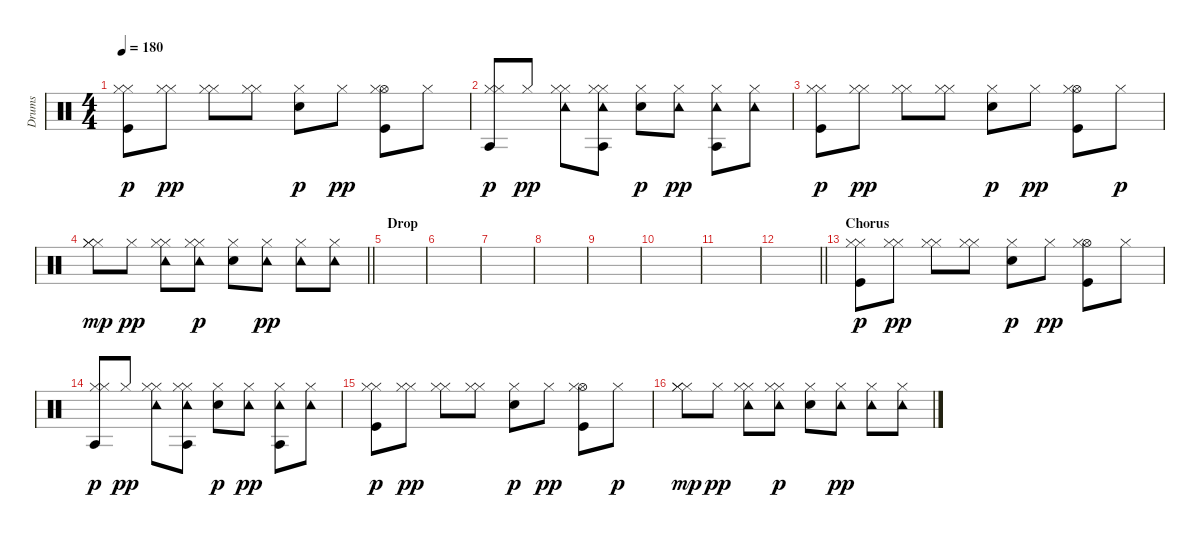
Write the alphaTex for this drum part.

\track ("Drums" "Drums") {instrument percussion}
\staff {score}
\articulation defaults
\ts (4 4)
\tempo 180
\clef neutral
\ks c
("Hi-Hat (closed)" "Hi-Hat (closed)" "Kick (hit)").8{dy p} ("Hi-Hat (closed)" "Hi-Hat (closed)").8{dy pp} ("Hi-Hat (closed)" "Hi-Hat (closed)").8 ("Hi-Hat (closed)" "Hi-Hat (closed)").8 ("Electric Snare (hit)" "Hi-Hat (closed)").8{dy p} "Hi-Hat (closed)".8{dy pp} ("Hi-Hat (open)" "Hi-Hat (closed)" "Kick (hit)").8 "Hi-Hat (closed)".8 |
("Agogo tow (hit)" "Hi-Hat (closed)" "Hi-Hat (closed)").8{dy p} "Hi-Hat (closed)".8{dy pp} ("Tambourine (hit)" "Hi-Hat (closed)" "Hi-Hat (closed)").8 ("Tambourine (hit)" "Hi-Hat (closed)" "Hi-Hat (closed)" "Agogo tow (hit)").8 ("Electric Snare (hit)" "Hi-Hat (closed)").8{dy p} ("Tambourine (hit)" "Hi-Hat (closed)").8{dy pp} ("Tambourine (hit)" "Hi-Hat (closed)" "Agogo tow (hit)").8 ("Tambourine (hit)" "Hi-Hat (closed)").8 |
("Hi-Hat (closed)" "Hi-Hat (closed)" "Kick (hit)").8{dy p} ("Hi-Hat (closed)" "Hi-Hat (closed)").8{dy pp} ("Hi-Hat (closed)" "Hi-Hat (closed)").8 ("Hi-Hat (closed)" "Hi-Hat (closed)").8 ("Electric Snare (hit)" "Hi-Hat (closed)").8{dy p} "Hi-Hat (closed)".8{dy pp} ("Hi-Hat (open)" "Hi-Hat (closed)" "Kick (hit)").8 "Hi-Hat (closed)".8{dy p} |
\barLineRight lightlight
("Hi-Hat (closed)" "Hi-Hat (closed)" "Hi-Hat (closed)").8{dy mp} "Hi-Hat (closed)".8{dy pp} ("Tambourine (hit)" "Hi-Hat (closed)" "Hi-Hat (closed)").8 ("Tambourine (hit)" "Hi-Hat (closed)" "Hi-Hat (closed)").8{dy p} ("Electric Snare (hit)" "Hi-Hat (closed)").8 ("Tambourine (hit)" "Hi-Hat (closed)").8{dy pp} ("Tambourine (hit)" "Hi-Hat (closed)").8 ("Tambourine (hit)" "Hi-Hat (closed)").8 |
\section ("" "Drop")
|
|
|
|
|
|
|
\barLineRight lightlight
|
\section ("" "Chorus")
("Hi-Hat (closed)" "Hi-Hat (closed)" "Kick (hit)").8{dy p} ("Hi-Hat (closed)" "Hi-Hat (closed)").8{dy pp} ("Hi-Hat (closed)" "Hi-Hat (closed)").8 ("Hi-Hat (closed)" "Hi-Hat (closed)").8 ("Electric Snare (hit)" "Hi-Hat (closed)").8{dy p} "Hi-Hat (closed)".8{dy pp} ("Hi-Hat (open)" "Hi-Hat (closed)" "Kick (hit)").8 "Hi-Hat (closed)".8 |
("Agogo tow (hit)" "Hi-Hat (closed)" "Hi-Hat (closed)").8{dy p} "Hi-Hat (closed)".8{dy pp} ("Tambourine (hit)" "Hi-Hat (closed)" "Hi-Hat (closed)").8 ("Tambourine (hit)" "Hi-Hat (closed)" "Hi-Hat (closed)" "Agogo tow (hit)").8 ("Electric Snare (hit)" "Hi-Hat (closed)").8{dy p} ("Tambourine (hit)" "Hi-Hat (closed)").8{dy pp} ("Tambourine (hit)" "Hi-Hat (closed)" "Agogo tow (hit)").8 ("Tambourine (hit)" "Hi-Hat (closed)").8 |
("Hi-Hat (closed)" "Hi-Hat (closed)" "Kick (hit)").8{dy p} ("Hi-Hat (closed)" "Hi-Hat (closed)").8{dy pp} ("Hi-Hat (closed)" "Hi-Hat (closed)").8 ("Hi-Hat (closed)" "Hi-Hat (closed)").8 ("Electric Snare (hit)" "Hi-Hat (closed)").8{dy p} "Hi-Hat (closed)".8{dy pp} ("Hi-Hat (open)" "Hi-Hat (closed)" "Kick (hit)").8 "Hi-Hat (closed)".8{dy p} |
("Hi-Hat (closed)" "Hi-Hat (closed)" "Hi-Hat (closed)").8{dy mp} "Hi-Hat (closed)".8{dy pp} ("Tambourine (hit)" "Hi-Hat (closed)" "Hi-Hat (closed)").8 ("Tambourine (hit)" "Hi-Hat (closed)" "Hi-Hat (closed)").8{dy p} ("Electric Snare (hit)" "Hi-Hat (closed)").8 ("Tambourine (hit)" "Hi-Hat (closed)").8{dy pp} ("Tambourine (hit)" "Hi-Hat (closed)").8 ("Tambourine (hit)" "Hi-Hat (closed)").8
